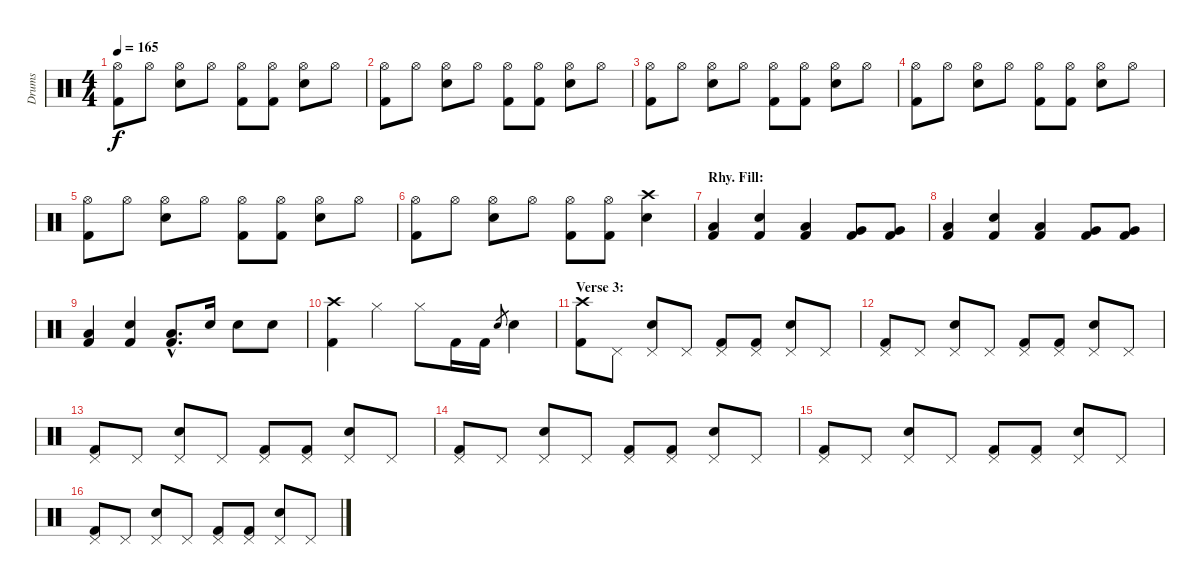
\track ("Drums" "Drums") {instrument percussion}
\staff {score}
\articulation defaults
\ts (4 4)
\tempo 165
\clef neutral
\ks c
("Hi-Hat (open)" "Kick (hit) 2").8{dy f} "Hi-Hat (open)".8 ("Hi-Hat (open)" "Electric Snare (hit)").8 "Hi-Hat (open)".8 ("Hi-Hat (open)" "Kick (hit) 2").8 ("Hi-Hat (open)" "Kick (hit) 2").8 ("Hi-Hat (open)" "Electric Snare (hit)").8 "Hi-Hat (open)".8 |
("Hi-Hat (open)" "Kick (hit) 2").8 "Hi-Hat (open)".8 ("Hi-Hat (open)" "Electric Snare (hit)").8 "Hi-Hat (open)".8 ("Hi-Hat (open)" "Kick (hit) 2").8 ("Hi-Hat (open)" "Kick (hit) 2").8 ("Hi-Hat (open)" "Electric Snare (hit)").8 "Hi-Hat (open)".8 |
("Hi-Hat (open)" "Kick (hit) 2").8 "Hi-Hat (open)".8 ("Hi-Hat (open)" "Electric Snare (hit)").8 "Hi-Hat (open)".8 ("Hi-Hat (open)" "Kick (hit) 2").8 ("Hi-Hat (open)" "Kick (hit) 2").8 ("Hi-Hat (open)" "Electric Snare (hit)").8 "Hi-Hat (open)".8 |
("Hi-Hat (open)" "Kick (hit) 2").8 "Hi-Hat (open)".8 ("Hi-Hat (open)" "Electric Snare (hit)").8 "Hi-Hat (open)".8 ("Hi-Hat (open)" "Kick (hit) 2").8 ("Hi-Hat (open)" "Kick (hit) 2").8 ("Hi-Hat (open)" "Electric Snare (hit)").8 "Hi-Hat (open)".8 |
("Hi-Hat (open)" "Kick (hit) 2").8 "Hi-Hat (open)".8 ("Hi-Hat (open)" "Electric Snare (hit)").8 "Hi-Hat (open)".8 ("Hi-Hat (open)" "Kick (hit) 2").8 ("Hi-Hat (open)" "Kick (hit) 2").8 ("Hi-Hat (open)" "Electric Snare (hit)").8 "Hi-Hat (open)".8 |
("Hi-Hat (open)" "Kick (hit) 2").8 "Hi-Hat (open)".8 ("Hi-Hat (open)" "Electric Snare (hit)").8 "Hi-Hat (open)".8 ("Hi-Hat (open)" "Kick (hit) 2").8 ("Hi-Hat (open)" "Kick (hit) 2").8 ("Crash high (hit)" "Electric Snare (hit)").4 |
\section ("" "Rhy. Fill:")
("Low Tom (hit)" "Kick (hit) 2").4 ("Electric Snare (hit)" "Kick (hit) 2").4 ("Low Tom (hit)" "Kick (hit) 2").4 ("Very Low Tom (hit)" "Kick (hit) 2").8 ("Very Low Tom (hit)" "Kick (hit) 2").8 |
("Low Tom (hit)" "Kick (hit) 2").4 ("Electric Snare (hit)" "Kick (hit) 2").4 ("Low Tom (hit)" "Kick (hit) 2").4 ("Very Low Tom (hit)" "Kick (hit) 2").8 ("Very Low Tom (hit)" "Kick (hit) 2").8 |
("Low Tom (hit)" "Kick (hit) 2").4 ("Electric Snare (hit)" "Kick (hit) 2").4 ("Low Tom (hit)"{hac} "Kick (hit) 2"{hac}).8{d} "Electric Snare (hit)".16 "Electric Snare (hit)".8 "Electric Snare (hit)".8 |
("Crash high (hit)" "Kick (hit) 2").4 "Hi-Hat (closed)".4 "Hi-Hat (closed)".8 "Kick (hit) 2".16 "Kick (hit) 2".16 "Electric Snare (hit)".8{gr} "Electric Snare (hit)".4 |
\section ("" "Verse 3:")
("Crash high (hit)" "Kick (hit) 2").8 "Pedal Hi-Hat (hit)".8 ("Pedal Hi-Hat (hit)" "Electric Snare (hit)").8 "Pedal Hi-Hat (hit)".8 ("Pedal Hi-Hat (hit)" "Kick (hit) 2").8 ("Pedal Hi-Hat (hit)" "Kick (hit) 2").8 ("Pedal Hi-Hat (hit)" "Electric Snare (hit)").8 "Pedal Hi-Hat (hit)".8 |
("Pedal Hi-Hat (hit)" "Kick (hit) 2").8 "Pedal Hi-Hat (hit)".8 ("Pedal Hi-Hat (hit)" "Electric Snare (hit)").8 "Pedal Hi-Hat (hit)".8 ("Pedal Hi-Hat (hit)" "Kick (hit) 2").8 ("Pedal Hi-Hat (hit)" "Kick (hit) 2").8 ("Pedal Hi-Hat (hit)" "Electric Snare (hit)").8 "Pedal Hi-Hat (hit)".8 |
("Pedal Hi-Hat (hit)" "Kick (hit) 2").8 "Pedal Hi-Hat (hit)".8 ("Pedal Hi-Hat (hit)" "Electric Snare (hit)").8 "Pedal Hi-Hat (hit)".8 ("Pedal Hi-Hat (hit)" "Kick (hit) 2").8 ("Pedal Hi-Hat (hit)" "Kick (hit) 2").8 ("Pedal Hi-Hat (hit)" "Electric Snare (hit)").8 "Pedal Hi-Hat (hit)".8 |
("Pedal Hi-Hat (hit)" "Kick (hit) 2").8 "Pedal Hi-Hat (hit)".8 ("Pedal Hi-Hat (hit)" "Electric Snare (hit)").8 "Pedal Hi-Hat (hit)".8 ("Pedal Hi-Hat (hit)" "Kick (hit) 2").8 ("Pedal Hi-Hat (hit)" "Kick (hit) 2").8 ("Pedal Hi-Hat (hit)" "Electric Snare (hit)").8 "Pedal Hi-Hat (hit)".8 |
("Pedal Hi-Hat (hit)" "Kick (hit) 2").8 "Pedal Hi-Hat (hit)".8 ("Pedal Hi-Hat (hit)" "Electric Snare (hit)").8 "Pedal Hi-Hat (hit)".8 ("Pedal Hi-Hat (hit)" "Kick (hit) 2").8 ("Pedal Hi-Hat (hit)" "Kick (hit) 2").8 ("Pedal Hi-Hat (hit)" "Electric Snare (hit)").8 "Pedal Hi-Hat (hit)".8 |
("Pedal Hi-Hat (hit)" "Kick (hit) 2").8 "Pedal Hi-Hat (hit)".8 ("Pedal Hi-Hat (hit)" "Electric Snare (hit)").8 "Pedal Hi-Hat (hit)".8 ("Pedal Hi-Hat (hit)" "Kick (hit) 2").8 ("Pedal Hi-Hat (hit)" "Kick (hit) 2").8 ("Pedal Hi-Hat (hit)" "Electric Snare (hit)").8 "Pedal Hi-Hat (hit)".8
